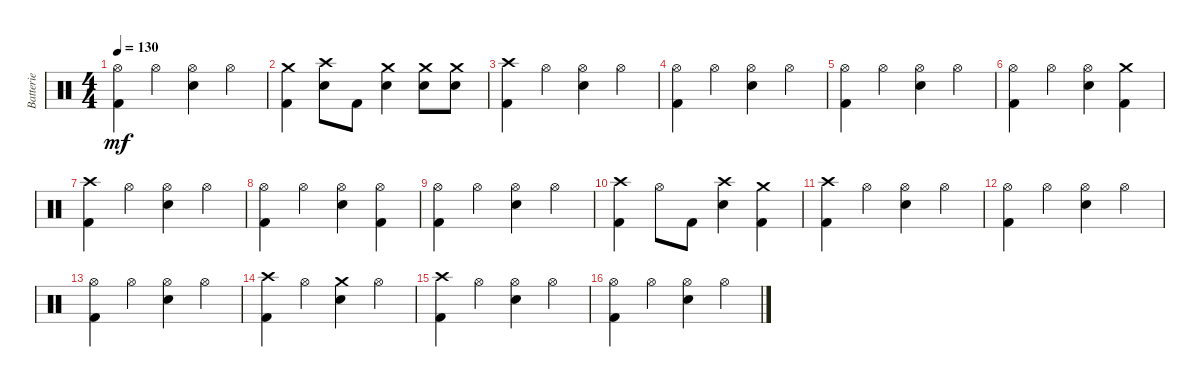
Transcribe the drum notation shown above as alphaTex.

\track ("Batterie" "Batterie") {instrument percussion}
\staff {score}
\articulation defaults
\ts (4 4)
\tempo 130
\clef neutral
\ks c
("Hi-Hat (open)" "Kick (hit) 2").4{dy mf} "Hi-Hat (open)".4 ("Hi-Hat (open)" "Electric Snare (hit)").4 "Hi-Hat (open)".4 |
("Crash medium (hit)" "Kick (hit) 2").4 ("Crash high (hit)" "Electric Snare (hit)").8 "Kick (hit) 2".8 ("Crash medium (hit)" "Electric Snare (hit)").4 ("Crash medium (hit)" "Electric Snare (hit)").8 ("Crash medium (hit)" "Electric Snare (hit)").8 |
("Crash high (hit)" "Kick (hit) 2").4 "Hi-Hat (open)".4 ("Hi-Hat (open)" "Electric Snare (hit)").4 "Hi-Hat (open)".4 |
("Hi-Hat (open)" "Kick (hit) 2").4 "Hi-Hat (open)".4 ("Hi-Hat (open)" "Electric Snare (hit)").4 "Hi-Hat (open)".4 |
("Hi-Hat (open)" "Kick (hit) 2").4 "Hi-Hat (open)".4 ("Hi-Hat (open)" "Electric Snare (hit)").4 "Hi-Hat (open)".4 |
("Hi-Hat (open)" "Kick (hit) 2").4 "Hi-Hat (open)".4 ("Hi-Hat (open)" "Electric Snare (hit)").4 ("Crash medium (hit)" "Kick (hit) 2").4 |
("Crash high (hit)" "Kick (hit) 2").4 "Hi-Hat (open)".4 ("Hi-Hat (open)" "Electric Snare (hit)").4 "Hi-Hat (open)".4 |
("Hi-Hat (open)" "Kick (hit) 2").4 "Hi-Hat (open)".4 ("Hi-Hat (open)" "Electric Snare (hit)").4 ("Hi-Hat (open)" "Kick (hit) 2").4 |
("Hi-Hat (open)" "Kick (hit) 2").4 "Hi-Hat (open)".4 ("Hi-Hat (open)" "Electric Snare (hit)").4 "Hi-Hat (open)".4 |
("Crash high (hit)" "Kick (hit) 2").4 "Hi-Hat (open)".8 "Kick (hit) 2".8 ("Crash high (hit)" "Electric Snare (hit)").4 ("Crash medium (hit)" "Kick (hit) 2").4 |
("Crash high (hit)" "Kick (hit) 2").4 "Hi-Hat (open)".4 ("Hi-Hat (open)" "Electric Snare (hit)").4 "Hi-Hat (open)".4 |
("Hi-Hat (open)" "Kick (hit) 2").4 "Hi-Hat (open)".4 ("Hi-Hat (open)" "Electric Snare (hit)").4 "Hi-Hat (open)".4 |
("Hi-Hat (open)" "Kick (hit) 2").4 "Hi-Hat (open)".4 ("Hi-Hat (open)" "Electric Snare (hit)").4 "Hi-Hat (open)".4 |
("Crash high (hit)" "Kick (hit) 2").4 "Hi-Hat (open)".4 ("Crash medium (hit)" "Electric Snare (hit)").4 "Hi-Hat (open)".4 |
("Crash high (hit)" "Kick (hit) 2").4 "Hi-Hat (open)".4 ("Hi-Hat (open)" "Electric Snare (hit)").4 "Hi-Hat (open)".4 |
("Hi-Hat (open)" "Kick (hit) 2").4 "Hi-Hat (open)".4 ("Hi-Hat (open)" "Electric Snare (hit)").4 "Hi-Hat (open)".4
